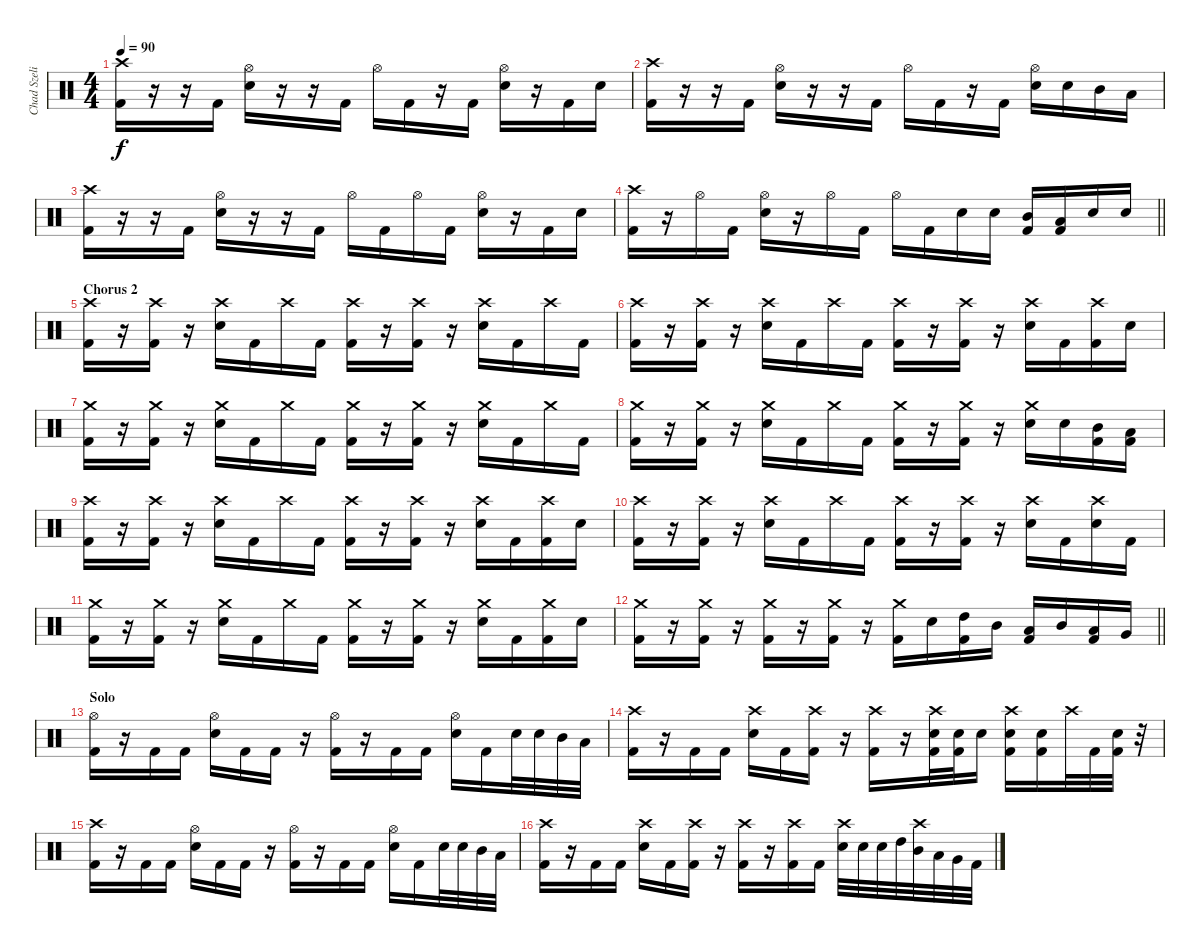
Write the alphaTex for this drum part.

\track ("Chad Szeliga" "Chad Szeli") {instrument percussion}
\staff {score}
\articulation defaults
\ts (4 4)
\tempo 90
\clef neutral
\ks c
("Crash high (hit)" "Kick (hit) 2").16{dy f} r.16 r.16 "Kick (hit) 2".16 ("Hi-Hat (open)" "Electric Snare (hit)").16 r.16 r.16 "Kick (hit) 2".16 "Hi-Hat (open)".16 "Kick (hit) 2".16 r.16 "Kick (hit) 2".16 ("Hi-Hat (open)" "Electric Snare (hit)").16 r.16 "Kick (hit) 2".16 "Electric Snare (hit)".16 |
("Crash high (hit)" "Kick (hit) 2").16 r.16 r.16 "Kick (hit) 2".16 ("Hi-Hat (open)" "Electric Snare (hit)").16 r.16 r.16 "Kick (hit) 2".16 "Hi-Hat (open)".16 "Kick (hit) 2".16 r.16 "Kick (hit) 2".16 ("Hi-Hat (open)" "Electric Snare (hit)").16 "Electric Snare (hit)".16 "Mid Tom (hit)".16 "Low Tom (hit)".16 |
("Crash high (hit)" "Kick (hit) 2").16 r.16 r.16 "Kick (hit) 2".16 ("Hi-Hat (open)" "Electric Snare (hit)").16 r.16 r.16 "Kick (hit) 2".16 "Hi-Hat (open)".16 "Kick (hit) 2".16 "Hi-Hat (open)".16 "Kick (hit) 2".16 ("Hi-Hat (open)" "Electric Snare (hit)").16 r.16 "Kick (hit) 2".16 "Electric Snare (hit)".16 |
\barLineRight lightlight
("Crash high (hit)" "Kick (hit) 2").16 r.16 "Hi-Hat (open)".16 "Kick (hit) 2".16 ("Hi-Hat (open)" "Electric Snare (hit)").16 r.16 "Hi-Hat (open)".16 "Kick (hit) 2".16 "Hi-Hat (open)".16 "Kick (hit) 2".16 "Electric Snare (hit)".16 "Electric Snare (hit)".16 ("Mid Tom (hit)" "Kick (hit) 2").16 ("Low Tom (hit)" "Kick (hit) 2").16 "Electric Snare (hit)".16 "Electric Snare (hit)".16 |
\section ("" "Chorus 2")
("Crash high (hit)" "Kick (hit) 2").16 r.16 ("Crash high (hit)" "Kick (hit) 2").16 r.16 ("Crash high (hit)" "Electric Snare (hit)").16 "Kick (hit) 2".16 "Crash high (hit)".16 "Kick (hit) 2".16 ("Crash high (hit)" "Kick (hit) 2").16 r.16 ("Crash high (hit)" "Kick (hit) 2").16 r.16 ("Crash high (hit)" "Electric Snare (hit)").16 "Kick (hit) 2".16 "Crash high (hit)".16 "Kick (hit) 2".16 |
("Crash high (hit)" "Kick (hit) 2").16 r.16 ("Crash high (hit)" "Kick (hit) 2").16 r.16 ("Crash high (hit)" "Electric Snare (hit)").16 "Kick (hit) 2".16 "Crash high (hit)".16 "Kick (hit) 2".16 ("Crash high (hit)" "Kick (hit) 2").16 r.16 ("Crash high (hit)" "Kick (hit) 2").16 r.16 ("Crash high (hit)" "Electric Snare (hit)").16 "Kick (hit) 2".16 ("Crash high (hit)" "Kick (hit) 2").16 "Electric Snare (hit)".16 |
("Crash medium (hit)" "Kick (hit) 2").16 r.16 ("Crash medium (hit)" "Kick (hit) 2").16 r.16 ("Crash medium (hit)" "Electric Snare (hit)").16 "Kick (hit) 2".16 "Crash medium (hit)".16 "Kick (hit) 2".16 ("Crash medium (hit)" "Kick (hit) 2").16 r.16 ("Crash medium (hit)" "Kick (hit) 2").16 r.16 ("Crash medium (hit)" "Electric Snare (hit)").16 "Kick (hit) 2".16 "Crash medium (hit)".16 "Kick (hit) 2".16 |
("Crash medium (hit)" "Kick (hit) 2").16 r.16 ("Crash medium (hit)" "Kick (hit) 2").16 r.16 ("Crash medium (hit)" "Electric Snare (hit)").16 "Kick (hit) 2".16 "Crash medium (hit)".16 "Kick (hit) 2".16 ("Crash medium (hit)" "Kick (hit) 2").16 r.16 ("Crash medium (hit)" "Kick (hit) 2").16 r.16 ("Crash medium (hit)" "Electric Snare (hit)").16 "Electric Snare (hit)".16 ("Mid Tom (hit)" "Kick (hit) 2").16 ("Low Tom (hit)" "Kick (hit) 2").16 |
("Crash high (hit)" "Kick (hit) 2").16 r.16 ("Crash high (hit)" "Kick (hit) 2").16 r.16 ("Crash high (hit)" "Electric Snare (hit)").16 "Kick (hit) 2".16 "Crash high (hit)".16 "Kick (hit) 2".16 ("Crash high (hit)" "Kick (hit) 2").16 r.16 ("Crash high (hit)" "Kick (hit) 2").16 r.16 ("Crash high (hit)" "Electric Snare (hit)").16 "Kick (hit) 2".16 ("Crash high (hit)" "Kick (hit) 2").16 "Electric Snare (hit)".16 |
("Crash high (hit)" "Kick (hit) 2").16 r.16 ("Crash high (hit)" "Kick (hit) 2").16 r.16 ("Crash high (hit)" "Electric Snare (hit)").16 "Kick (hit) 2".16 "Crash high (hit)".16 "Kick (hit) 2".16 ("Crash high (hit)" "Kick (hit) 2").16 r.16 ("Crash high (hit)" "Kick (hit) 2").16 r.16 ("Crash high (hit)" "Electric Snare (hit)").16 "Kick (hit) 2".16 ("Crash high (hit)" "Electric Snare (hit)").16 "Kick (hit) 2".16 |
("Crash medium (hit)" "Kick (hit) 2").16 r.16 ("Crash medium (hit)" "Kick (hit) 2").16 r.16 ("Crash medium (hit)" "Electric Snare (hit)").16 "Kick (hit) 2".16 "Crash medium (hit)".16 "Kick (hit) 2".16 ("Crash medium (hit)" "Kick (hit) 2").16 r.16 ("Crash medium (hit)" "Kick (hit) 2").16 r.16 ("Crash medium (hit)" "Electric Snare (hit)").16 "Kick (hit) 2".16 ("Crash medium (hit)" "Kick (hit) 2").16 "Electric Snare (hit)".16 |
\barLineRight lightlight
("Crash medium (hit)" "Kick (hit) 2").16 r.16 ("Crash medium (hit)" "Kick (hit) 2").16 r.16 ("Crash medium (hit)" "Kick (hit) 2").16 r.16 ("Crash medium (hit)" "Kick (hit) 2").16 r.16 ("Crash medium (hit)" "Kick (hit) 2").16 "Electric Snare (hit)".16 ("High Tom (hit)" "Kick (hit) 2").16 "Mid Tom (hit)".16 ("Low Tom (hit)" "Kick (hit) 2").16 "Mid Tom (hit)".16 ("Low Tom (hit)" "Kick (hit) 2").16 "Very Low Tom (hit)".16 |
\section ("" "Solo")
("Hi-Hat (open)" "Kick (hit) 2").16 r.16 "Kick (hit) 2".16 "Kick (hit) 2".16 ("Hi-Hat (open)" "Electric Snare (hit)").16 "Kick (hit) 2".16 "Kick (hit) 2".16 r.16 ("Hi-Hat (open)" "Kick (hit) 2").16 r.16 "Kick (hit) 2".16 "Kick (hit) 2".16 ("Hi-Hat (open)" "Electric Snare (hit)").16 "Kick (hit) 2".16 "Electric Snare (hit)".32 "Electric Snare (hit)".32 "Mid Tom (hit)".32 "Low Tom (hit)".32 |
("Crash high (hit)" "Kick (hit) 2").16 r.16 "Kick (hit) 2".16 "Kick (hit) 2".16 ("Crash high (hit)" "Electric Snare (hit)").16 "Kick (hit) 2".16 ("Crash high (hit)" "Kick (hit) 2").16 r.16 ("Crash high (hit)" "Kick (hit) 2").16 r.16 ("Crash high (hit)" "Electric Snare (hit)" "Kick (hit) 2").32 ("Electric Snare (hit)" "Kick (hit) 2").32 "Electric Snare (hit)".16 ("Crash high (hit)" "Electric Snare (hit)" "Kick (hit) 2").16 ("Electric Snare (hit)" "Kick (hit) 2").16 "Crash high (hit)".32 "Kick (hit) 2".32 ("Electric Snare (hit)" "Kick (hit) 2").32 r.32 |
("Crash high (hit)" "Kick (hit) 2").16 r.16 "Kick (hit) 2".16 "Kick (hit) 2".16 ("Hi-Hat (open)" "Electric Snare (hit)").16 "Kick (hit) 2".16 "Kick (hit) 2".16 r.16 ("Hi-Hat (open)" "Kick (hit) 2").16 r.16 "Kick (hit) 2".16 "Kick (hit) 2".16 ("Hi-Hat (open)" "Electric Snare (hit)").16 "Kick (hit) 2".16 "Electric Snare (hit)".32 "Electric Snare (hit)".32 "Mid Tom (hit)".32 "Low Tom (hit)".32 |
("Crash high (hit)" "Kick (hit) 2").16 r.16 "Kick (hit) 2".16 "Kick (hit) 2".16 ("Crash high (hit)" "Electric Snare (hit)").16 "Kick (hit) 2".16 ("Crash high (hit)" "Kick (hit) 2").16 r.16 ("Crash high (hit)" "Kick (hit) 2").16 r.16 ("Crash high (hit)" "Kick (hit) 2").16 "Kick (hit) 2".16 ("Crash high (hit)" "Electric Snare (hit)").32 "Electric Snare (hit)".32 "Electric Snare (hit)".32 "High Tom (hit)".32 ("Crash high (hit)" "Mid Tom (hit)").32 "Low Tom (hit)".32 "Very Low Tom (hit)".32 "Kick (hit) 2".32
